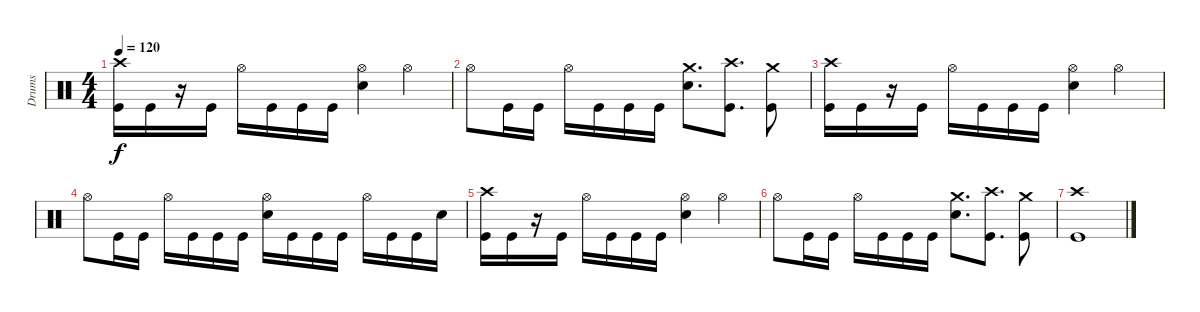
\track ("Drums" "Drums") {instrument percussion}
\staff {score}
\articulation defaults
\ts (4 4)
\tempo 120
\clef neutral
\ks c
("Crash high (hit)" "Kick (hit)").16{dy f} "Kick (hit)".16 r.16 "Kick (hit)".16 "Hi-Hat (open)".16 "Kick (hit)".16 "Kick (hit)".16 "Kick (hit)".16 ("Hi-Hat (open)" "Electric Snare (hit)").4 "Hi-Hat (open)".4 |
"Hi-Hat (open)".8 "Kick (hit)".16 "Kick (hit)".16 "Hi-Hat (open)".16 "Kick (hit)".16 "Kick (hit)".16 "Kick (hit)".16 ("Crash medium (hit)" "Electric Snare (hit)").8{d} ("Crash high (hit)" "Kick (hit)").8{d} ("Crash medium (hit)" "Kick (hit)").8 |
("Crash high (hit)" "Kick (hit)").16 "Kick (hit)".16 r.16 "Kick (hit)".16 "Hi-Hat (open)".16 "Kick (hit)".16 "Kick (hit)".16 "Kick (hit)".16 ("Hi-Hat (open)" "Electric Snare (hit)").4 "Hi-Hat (open)".4 |
"Hi-Hat (open)".8 "Kick (hit)".16 "Kick (hit)".16 "Hi-Hat (open)".16 "Kick (hit)".16 "Kick (hit)".16 "Kick (hit)".16 ("Hi-Hat (open)" "Electric Snare (hit)").16 "Kick (hit)".16 "Kick (hit)".16 "Kick (hit)".16 "Hi-Hat (open)".16 "Kick (hit)".16 "Kick (hit)".16 "Electric Snare (hit)".16 |
("Crash high (hit)" "Kick (hit)").16 "Kick (hit)".16 r.16 "Kick (hit)".16 "Hi-Hat (open)".16 "Kick (hit)".16 "Kick (hit)".16 "Kick (hit)".16 ("Hi-Hat (open)" "Electric Snare (hit)").4 "Hi-Hat (open)".4 |
"Hi-Hat (open)".8 "Kick (hit)".16 "Kick (hit)".16 "Hi-Hat (open)".16 "Kick (hit)".16 "Kick (hit)".16 "Kick (hit)".16 ("Crash medium (hit)" "Electric Snare (hit)").8{d} ("Crash high (hit)" "Kick (hit)").8{d} ("Crash medium (hit)" "Kick (hit)").8 |
("Crash high (hit)" "Kick (hit)").1
